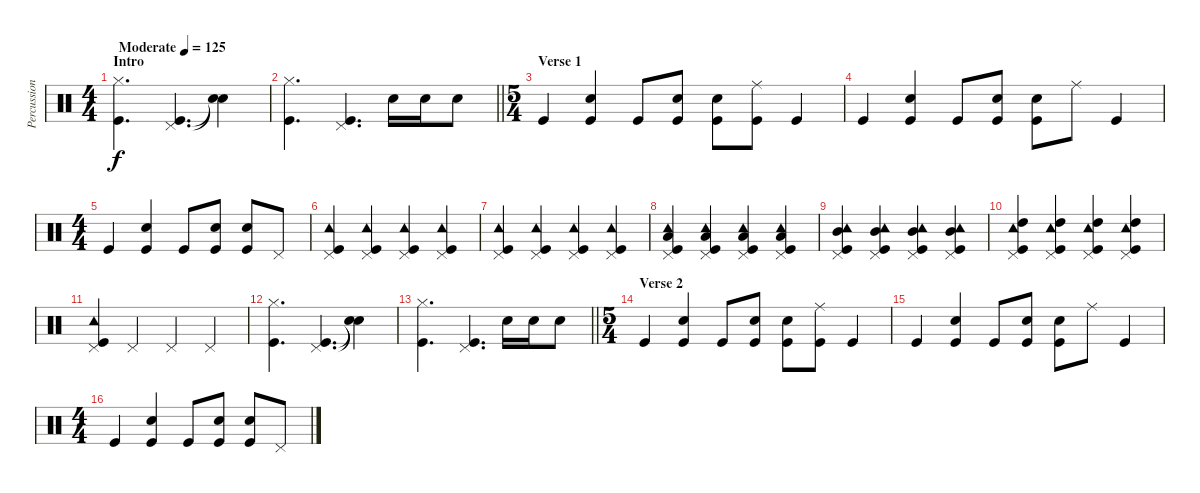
\track ("Percussions" "Percussion") {instrument percussion}
\staff {score}
\articulation defaults
\ts (4 4)
\section ("" "Intro")
\tempo (125 "Moderate")
\clef neutral
\ks c
("Hi-Hat (closed)" "Kick (hit)").4{d dy f} ("Pedal Hi-Hat (hit)" "Kick (hit)").4{d} ("Snare (hit)"{t} "Snare (hit)"{t}).4 |
\barLineRight lightlight
("Hi-Hat (closed)" "Kick (hit)").4{d} ("Pedal Hi-Hat (hit)" "Kick (hit)").4{d} "Snare (hit) 2".16 "Snare (hit) 2".16 "Snare (hit) 2".8 |
\ts (5 4)
\section ("" "Verse 1")
"Kick (hit)".4 ("Snare (hit) 2" "Kick (hit)").4 "Kick (hit)".8 ("Snare (hit) 2" "Kick (hit)").8 ("Snare (hit) 2" "Kick (hit)").8 ("Ride (middle)" "Kick (hit)").8 "Kick (hit)".4 |
"Kick (hit)".4 ("Snare (hit) 2" "Kick (hit)").4 "Kick (hit)".8 ("Snare (hit) 2" "Kick (hit)").8 ("Snare (hit) 2" "Kick (hit)").8 "Ride (middle)".8 "Kick (hit)".4 |
\ts (4 4)
"Kick (hit)".4 ("Snare (hit) 2" "Kick (hit)").4 "Kick (hit)".8 ("Snare (hit) 2" "Kick (hit)").8 ("Snare (hit) 2" "Kick (hit)").8 "Pedal Hi-Hat (hit)".8 |
("Tambourine (hit)" "Pedal Hi-Hat (hit)" "Kick (hit)").4 ("Tambourine (hit)" "Pedal Hi-Hat (hit)" "Kick (hit)").4 ("Tambourine (hit)" "Pedal Hi-Hat (hit)" "Kick (hit)").4 ("Tambourine (hit)" "Pedal Hi-Hat (hit)" "Kick (hit)").4 |
("Tambourine (hit)" "Pedal Hi-Hat (hit)" "Kick (hit)").4 ("Tambourine (hit)" "Pedal Hi-Hat (hit)" "Kick (hit)").4 ("Tambourine (hit)" "Pedal Hi-Hat (hit)" "Kick (hit)").4 ("Tambourine (hit)" "Pedal Hi-Hat (hit)" "Kick (hit)").4 |
("Tambourine (hit)" "Pedal Hi-Hat (hit)" "Low Tom (hit)" "Kick (hit)").4 ("Tambourine (hit)" "Pedal Hi-Hat (hit)" "Low Tom (hit)" "Kick (hit)").4 ("Tambourine (hit)" "Pedal Hi-Hat (hit)" "Low Tom (hit)" "Kick (hit)").4 ("Tambourine (hit)" "Pedal Hi-Hat (hit)" "Low Tom (hit)" "Kick (hit)").4 |
("Tambourine (hit)" "Pedal Hi-Hat (hit)" "Mid Tom (hit)" "Kick (hit)").4 ("Tambourine (hit)" "Pedal Hi-Hat (hit)" "Mid Tom (hit)" "Kick (hit)").4 ("Tambourine (hit)" "Pedal Hi-Hat (hit)" "Mid Tom (hit)" "Kick (hit)").4 ("Tambourine (hit)" "Pedal Hi-Hat (hit)" "Mid Tom (hit)" "Kick (hit)").4 |
("Tambourine (hit)" "Pedal Hi-Hat (hit)" "High Tom (hit)" "Kick (hit)").4 ("Tambourine (hit)" "Pedal Hi-Hat (hit)" "High Tom (hit)" "Kick (hit)").4 ("Tambourine (hit)" "Pedal Hi-Hat (hit)" "High Tom (hit)" "Kick (hit)").4 ("Tambourine (hit)" "Pedal Hi-Hat (hit)" "High Tom (hit)" "Kick (hit)").4 |
("Tambourine (hit)" "Pedal Hi-Hat (hit)" "Kick (hit)").4 "Pedal Hi-Hat (hit)".4 "Pedal Hi-Hat (hit)".4 "Pedal Hi-Hat (hit)".4 |
("Hi-Hat (closed)" "Kick (hit)").4{d} ("Pedal Hi-Hat (hit)" "Kick (hit)").4{d} ("Snare (hit)"{t} "Snare (hit)"{t}).4 |
\barLineRight lightlight
("Hi-Hat (closed)" "Kick (hit)").4{d} ("Pedal Hi-Hat (hit)" "Kick (hit)").4{d} "Snare (hit) 2".16 "Snare (hit) 2".16 "Snare (hit) 2".8 |
\ts (5 4)
\section ("" "Verse 2")
"Kick (hit)".4 ("Snare (hit) 2" "Kick (hit)").4 "Kick (hit)".8 ("Snare (hit) 2" "Kick (hit)").8 ("Snare (hit) 2" "Kick (hit)").8 ("Ride (middle)" "Kick (hit)").8 "Kick (hit)".4 |
"Kick (hit)".4 ("Snare (hit) 2" "Kick (hit)").4 "Kick (hit)".8 ("Snare (hit) 2" "Kick (hit)").8 ("Snare (hit) 2" "Kick (hit)").8 "Ride (middle)".8 "Kick (hit)".4 |
\ts (4 4)
"Kick (hit)".4 ("Snare (hit) 2" "Kick (hit)").4 "Kick (hit)".8 ("Snare (hit) 2" "Kick (hit)").8 ("Snare (hit) 2" "Kick (hit)").8 "Pedal Hi-Hat (hit)".8
